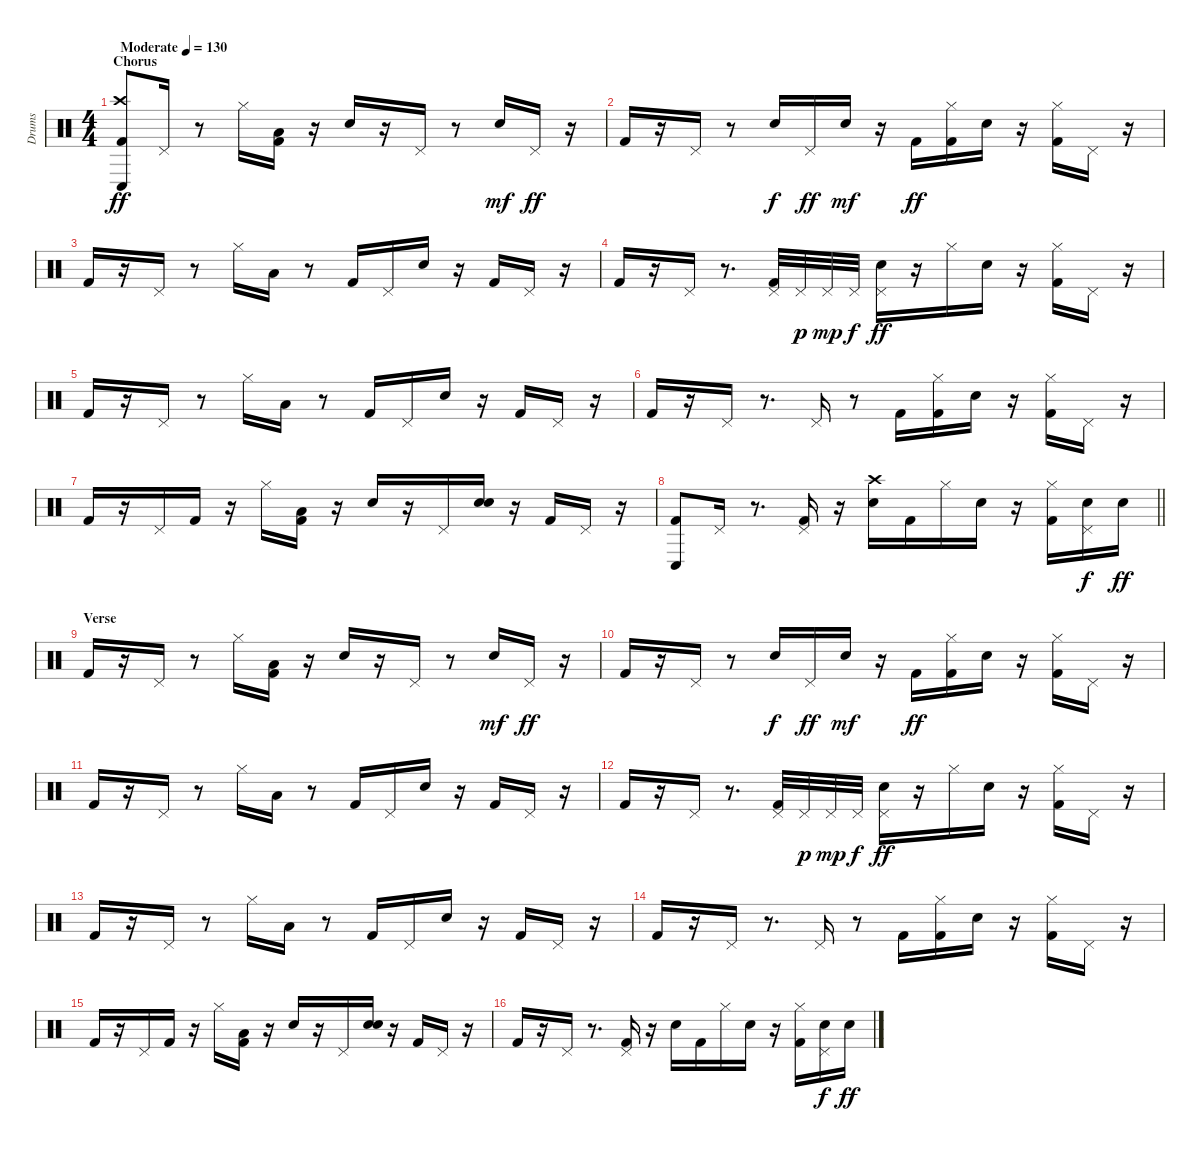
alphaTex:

\track ("Drums" "Drums") {instrument percussion}
\staff {score}
\articulation defaults
\ts (4 4)
\section ("" "Chorus")
\tempo (130 "Moderate")
\clef neutral
\ks c
("Kick (hit) 2" "Crash high (hit)" "Conga low (hit)").8{dy ff} "Pedal Hi-Hat (hit)".16 r.8 "Hi-Hat (closed)".16 ("Kick (hit) 2" "Low Floor Tom (hit)").16 r.16 "Electric Snare (hit)".16 r.16 "Pedal Hi-Hat (hit)".16 r.8 "Snare (hit) 2".16{dy mf} "Pedal Hi-Hat (hit)".16{dy ff} r.16 |
"Kick (hit) 2".16 r.16 "Pedal Hi-Hat (hit)".16 r.8 "Snare (hit) 2".16{dy f} "Pedal Hi-Hat (hit)".16{dy ff} "Snare (hit) 2".16{dy mf} r.16 "Kick (hit) 2".16{dy ff} ("Kick (hit) 2" "Hi-Hat (closed)").16 "Electric Snare (hit)".16 r.16 ("Kick (hit) 2" "Hi-Hat (closed)").16 "Pedal Hi-Hat (hit)".16 r.16 |
"Kick (hit) 2".16 r.16 "Pedal Hi-Hat (hit)".16 r.8 "Hi-Hat (closed)".16 "Low Floor Tom (hit)".16 r.8 "Kick (hit) 2".16 "Pedal Hi-Hat (hit)".16 "Electric Snare (hit)".16 r.16 "Kick (hit) 2".16 "Pedal Hi-Hat (hit)".16 r.16 |
"Kick (hit) 2".16 r.16 "Pedal Hi-Hat (hit)".16 r.8{d} ("Kick (hit) 2" "Pedal Hi-Hat (hit)").32 "Pedal Hi-Hat (hit)".32{dy p} "Pedal Hi-Hat (hit)".32{dy mp} "Pedal Hi-Hat (hit)".32{dy f} ("Electric Snare (hit)" "Pedal Hi-Hat (hit)").16{dy ff} r.16 "Hi-Hat (closed)".16 "Electric Snare (hit)".16 r.16 ("Kick (hit) 2" "Hi-Hat (closed)").16 "Pedal Hi-Hat (hit)".16 r.16 |
"Kick (hit) 2".16 r.16 "Pedal Hi-Hat (hit)".16 r.8 "Hi-Hat (closed)".16 "Low Floor Tom (hit)".16 r.8 "Kick (hit) 2".16 "Pedal Hi-Hat (hit)".16 "Electric Snare (hit)".16 r.16 "Kick (hit) 2".16 "Pedal Hi-Hat (hit)".16 r.16 |
"Kick (hit) 2".16 r.16 "Pedal Hi-Hat (hit)".16 r.8{d} "Pedal Hi-Hat (hit)".16 r.8 "Kick (hit) 2".16 ("Kick (hit) 2" "Hi-Hat (closed)").16 "Electric Snare (hit)".16 r.16 ("Kick (hit) 2" "Hi-Hat (closed)").16 "Pedal Hi-Hat (hit)".16 r.16 |
"Kick (hit) 2".16 r.16 "Pedal Hi-Hat (hit)".16 "Kick (hit) 2".16 r.16 "Hi-Hat (closed)".16 ("Kick (hit) 2" "Low Floor Tom (hit)").16 r.16 "Electric Snare (hit)".16 r.16 "Pedal Hi-Hat (hit)".16 ("Snare (hit) 2" "Hand Clap (hit)").16 r.16 "Kick (hit) 2".16 "Pedal Hi-Hat (hit)".16 r.16 |
\barLineRight lightlight
("Kick (hit) 2" "Conga low (hit)").8 "Pedal Hi-Hat (hit)".16 r.8{d} ("Kick (hit) 2" "Pedal Hi-Hat (hit)").16 r.16 ("Electric Snare (hit)" "Crash high (hit)").16 "Kick (hit) 2".16 "Hi-Hat (closed)".16 "Electric Snare (hit)".16 r.16 ("Kick (hit) 2" "Hi-Hat (closed)").16 ("Electric Snare (hit)" "Pedal Hi-Hat (hit)").16{dy f} "Electric Snare (hit)".16{dy ff} |
\section ("" "Verse")
"Kick (hit) 2".16 r.16 "Pedal Hi-Hat (hit)".16 r.8 "Hi-Hat (closed)".16 ("Kick (hit) 2" "Low Floor Tom (hit)").16 r.16 "Electric Snare (hit)".16 r.16 "Pedal Hi-Hat (hit)".16 r.8 "Snare (hit) 2".16{dy mf} "Pedal Hi-Hat (hit)".16{dy ff} r.16 |
"Kick (hit) 2".16 r.16 "Pedal Hi-Hat (hit)".16 r.8 "Snare (hit) 2".16{dy f} "Pedal Hi-Hat (hit)".16{dy ff} "Snare (hit) 2".16{dy mf} r.16 "Kick (hit) 2".16{dy ff} ("Kick (hit) 2" "Hi-Hat (closed)").16 "Electric Snare (hit)".16 r.16 ("Kick (hit) 2" "Hi-Hat (closed)").16 "Pedal Hi-Hat (hit)".16 r.16 |
"Kick (hit) 2".16 r.16 "Pedal Hi-Hat (hit)".16 r.8 "Hi-Hat (closed)".16 "Low Floor Tom (hit)".16 r.8 "Kick (hit) 2".16 "Pedal Hi-Hat (hit)".16 "Electric Snare (hit)".16 r.16 "Kick (hit) 2".16 "Pedal Hi-Hat (hit)".16 r.16 |
"Kick (hit) 2".16 r.16 "Pedal Hi-Hat (hit)".16 r.8{d} ("Kick (hit) 2" "Pedal Hi-Hat (hit)").32 "Pedal Hi-Hat (hit)".32{dy p} "Pedal Hi-Hat (hit)".32{dy mp} "Pedal Hi-Hat (hit)".32{dy f} ("Electric Snare (hit)" "Pedal Hi-Hat (hit)").16{dy ff} r.16 "Hi-Hat (closed)".16 "Electric Snare (hit)".16 r.16 ("Kick (hit) 2" "Hi-Hat (closed)").16 "Pedal Hi-Hat (hit)".16 r.16 |
"Kick (hit) 2".16 r.16 "Pedal Hi-Hat (hit)".16 r.8 "Hi-Hat (closed)".16 "Low Floor Tom (hit)".16 r.8 "Kick (hit) 2".16 "Pedal Hi-Hat (hit)".16 "Electric Snare (hit)".16 r.16 "Kick (hit) 2".16 "Pedal Hi-Hat (hit)".16 r.16 |
"Kick (hit) 2".16 r.16 "Pedal Hi-Hat (hit)".16 r.8{d} "Pedal Hi-Hat (hit)".16 r.8 "Kick (hit) 2".16 ("Kick (hit) 2" "Hi-Hat (closed)").16 "Electric Snare (hit)".16 r.16 ("Kick (hit) 2" "Hi-Hat (closed)").16 "Pedal Hi-Hat (hit)".16 r.16 |
"Kick (hit) 2".16 r.16 "Pedal Hi-Hat (hit)".16 "Kick (hit) 2".16 r.16 "Hi-Hat (closed)".16 ("Kick (hit) 2" "Low Floor Tom (hit)").16 r.16 "Electric Snare (hit)".16 r.16 "Pedal Hi-Hat (hit)".16 ("Snare (hit) 2" "Hand Clap (hit)").16 r.16 "Kick (hit) 2".16 "Pedal Hi-Hat (hit)".16 r.16 |
"Kick (hit) 2".16 r.16 "Pedal Hi-Hat (hit)".16 r.8{d} ("Kick (hit) 2" "Pedal Hi-Hat (hit)").16 r.16 "Electric Snare (hit)".16 "Kick (hit) 2".16 "Hi-Hat (closed)".16 "Electric Snare (hit)".16 r.16 ("Kick (hit) 2" "Hi-Hat (closed)").16 ("Electric Snare (hit)" "Pedal Hi-Hat (hit)").16{dy f} "Electric Snare (hit)".16{dy ff}
